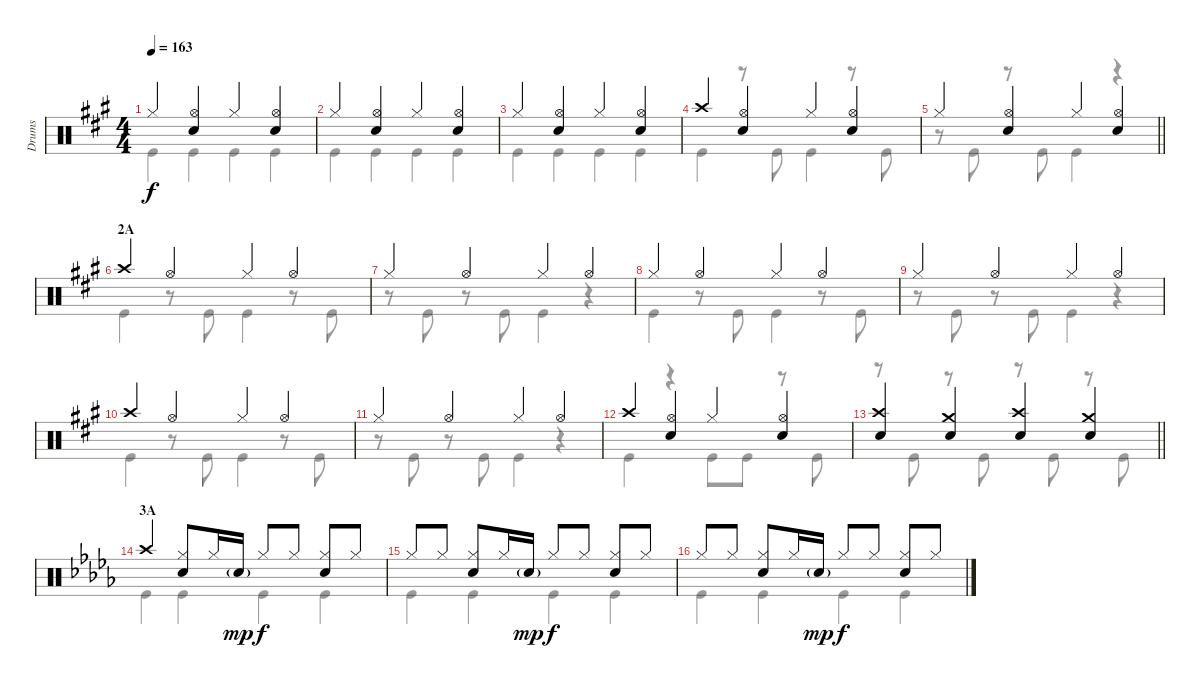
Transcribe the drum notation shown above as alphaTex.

\track ("Drums" "Drums") {instrument percussion}
\staff {score}
\articulation defaults
\voice
\ts (4 4)
\tempo 163
\clef neutral
\ks a "Hi-Hat (closed)".4{dy f}
("Hi-Hat (open)" "Snare (hit) 2").4 "Hi-Hat (closed)".4 ("Hi-Hat (open)" "Snare (hit) 2").4 |
"Hi-Hat (closed)".4 ("Hi-Hat (open)" "Snare (hit) 2").4 "Hi-Hat (closed)".4 ("Hi-Hat (open)" "Snare (hit) 2").4 |
"Hi-Hat (closed)".4 ("Hi-Hat (open)" "Snare (hit) 2").4 "Hi-Hat (closed)".4 ("Hi-Hat (open)" "Snare (hit) 2").4 |
"Crash high (hit)".4 ("Hi-Hat (open)" "Snare (hit) 2").4 "Hi-Hat (closed)".4 ("Hi-Hat (open)" "Snare (hit) 2").4 |
\barLineRight lightlight "Hi-Hat (closed)".4
("Hi-Hat (open)" "Snare (hit) 2").4 "Hi-Hat (closed)".4 ("Hi-Hat (open)" "Snare (hit) 2").4 |
\section ("" "2A")
"Crash high (hit)".4 "Hi-Hat (open)".4 "Hi-Hat (closed)".4 "Hi-Hat (open)".4 |
"Hi-Hat (closed)".4 "Hi-Hat (open)".4 "Hi-Hat (closed)".4 "Hi-Hat (open)".4 |
"Hi-Hat (closed)".4 "Hi-Hat (open)".4 "Hi-Hat (closed)".4 "Hi-Hat (open)".4 |
"Hi-Hat (closed)".4 "Hi-Hat (open)".4 "Hi-Hat (closed)".4 "Hi-Hat (open)".4 |
"Crash high (hit)".4 "Hi-Hat (open)".4 "Hi-Hat (closed)".4 "Hi-Hat (open)".4 |
"Hi-Hat (closed)".4 "Hi-Hat (open)".4 "Hi-Hat (closed)".4 "Hi-Hat (open)".4 |
"Crash high (hit)".4 ("Hi-Hat (open)" "Snare (hit) 2").4 "Hi-Hat (closed)".4 ("Hi-Hat (open)" "Snare (hit) 2").4 |
\barLineRight lightlight
("Crash high (hit)" "Snare (hit) 2").4 ("Crash medium (hit)" "Snare (hit) 2").4 ("Crash high (hit)" "Snare (hit) 2").4 ("Crash medium (hit)" "Snare (hit) 2").4 |
\section ("" "3A")
\ks db "Crash high (hit)".4
("Hi-Hat (closed)" "Snare (hit) 2").8 "Hi-Hat (closed)".16 "Snare (hit) 2"{g}.16{dy mp} "Hi-Hat (closed)".8{dy f} "Hi-Hat (closed)".8 ("Hi-Hat (closed)" "Snare (hit) 2").8 "Hi-Hat (closed)".8 |
"Hi-Hat (closed)".8 "Hi-Hat (closed)".8 ("Hi-Hat (closed)" "Snare (hit) 2").8 "Hi-Hat (closed)".16 "Snare (hit) 2"{g}.16{dy mp} "Hi-Hat (closed)".8{dy f} "Hi-Hat (closed)".8 ("Hi-Hat (closed)" "Snare (hit) 2").8 "Hi-Hat (closed)".8 |
"Hi-Hat (closed)".8 "Hi-Hat (closed)".8 ("Hi-Hat (closed)" "Snare (hit) 2").8 "Hi-Hat (closed)".16 "Snare (hit) 2"{g}.16{dy mp} "Hi-Hat (closed)".8{dy f} "Hi-Hat (closed)".8 ("Hi-Hat (closed)" "Snare (hit) 2").8 "Hi-Hat (closed)".8
\voice
\clef neutral
\ottava regular
\simile none
\ks a "Kick (hit)".4{dy f} "Kick (hit)".4 "Kick (hit)".4 "Kick (hit)".4
|
"Kick (hit)".4 "Kick (hit)".4 "Kick (hit)".4 "Kick (hit)".4 |
"Kick (hit)".4 "Kick (hit)".4 "Kick (hit)".4 "Kick (hit)".4 |
"Kick (hit)".4 r.8 "Kick (hit)".8 "Kick (hit)".4 r.8 "Kick (hit)".8 |
\barLineRight lightlight
r.8 "Kick (hit)".8 r.8 "Kick (hit)".8 "Kick (hit)".4 r.4 |
"Kick (hit)".4 r.8 "Kick (hit)".8 "Kick (hit)".4 r.8 "Kick (hit)".8 |
r.8 "Kick (hit)".8 r.8 "Kick (hit)".8 "Kick (hit)".4 r.4 |
"Kick (hit)".4 r.8 "Kick (hit)".8 "Kick (hit)".4 r.8 "Kick (hit)".8 |
r.8 "Kick (hit)".8 r.8 "Kick (hit)".8 "Kick (hit)".4 r.4 |
"Kick (hit)".4 r.8 "Kick (hit)".8 "Kick (hit)".4 r.8 "Kick (hit)".8 |
r.8 "Kick (hit)".8 r.8 "Kick (hit)".8 "Kick (hit)".4 r.4 |
"Kick (hit)".4 r.4 "Kick (hit)".8 "Kick (hit)".8 r.8 "Kick (hit)".8 |
\barLineRight lightlight
r.8 "Kick (hit)".8 r.8 "Kick (hit)".8 r.8 "Kick (hit)".8 r.8 "Kick (hit)".8 |
\ks db "Kick (hit)".4 "Kick (hit)".4 "Kick (hit)".4 "Kick (hit)".4
|
"Kick (hit)".4 "Kick (hit)".4 "Kick (hit)".4 "Kick (hit)".4 |
"Kick (hit)".4 "Kick (hit)".4 "Kick (hit)".4 "Kick (hit)".4
